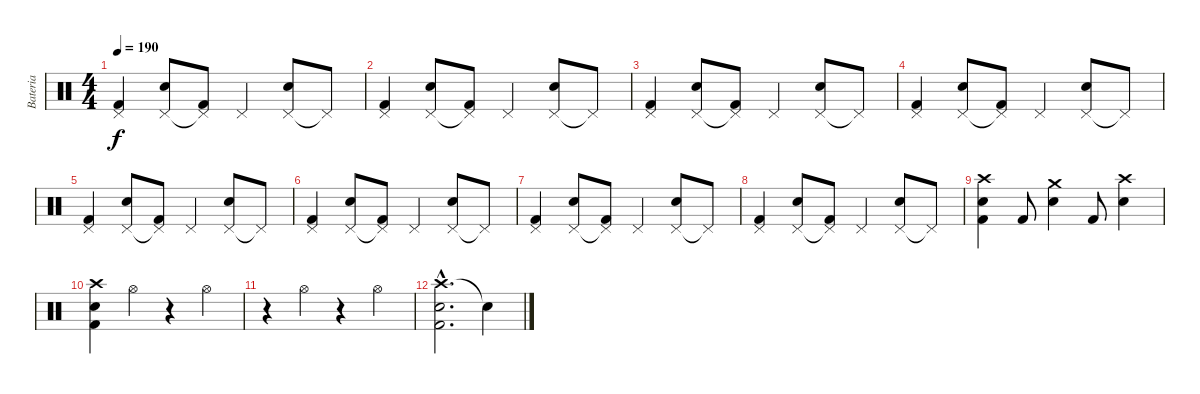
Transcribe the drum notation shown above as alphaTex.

\track ("Bateria" "Bateria") {instrument percussion}
\staff {score}
\articulation defaults
\ts (4 4)
\tempo 190
\clef neutral
\ks c
("Pedal Hi-Hat (hit)" "Kick (hit) 2").4{dy f} ("Pedal Hi-Hat (hit)" "Snare (hit) 2").8 ("Pedal Hi-Hat (hit)"{t} "Kick (hit) 2").8 "Pedal Hi-Hat (hit)".4 ("Pedal Hi-Hat (hit)" "Snare (hit) 2").8 "Pedal Hi-Hat (hit)"{t}.8 |
("Pedal Hi-Hat (hit)" "Kick (hit) 2").4 ("Pedal Hi-Hat (hit)" "Snare (hit) 2").8 ("Pedal Hi-Hat (hit)"{t} "Kick (hit) 2").8 "Pedal Hi-Hat (hit)".4 ("Pedal Hi-Hat (hit)" "Snare (hit) 2").8 "Pedal Hi-Hat (hit)"{t}.8 |
("Pedal Hi-Hat (hit)" "Kick (hit) 2").4 ("Pedal Hi-Hat (hit)" "Snare (hit) 2").8 ("Pedal Hi-Hat (hit)"{t} "Kick (hit) 2").8 "Pedal Hi-Hat (hit)".4 ("Pedal Hi-Hat (hit)" "Snare (hit) 2").8 "Pedal Hi-Hat (hit)"{t}.8 |
("Pedal Hi-Hat (hit)" "Kick (hit) 2").4 ("Pedal Hi-Hat (hit)" "Snare (hit) 2").8 ("Pedal Hi-Hat (hit)"{t} "Kick (hit) 2").8 "Pedal Hi-Hat (hit)".4 ("Pedal Hi-Hat (hit)" "Snare (hit) 2").8 "Pedal Hi-Hat (hit)"{t}.8 |
("Pedal Hi-Hat (hit)" "Kick (hit) 2").4 ("Pedal Hi-Hat (hit)" "Snare (hit) 2").8 ("Pedal Hi-Hat (hit)"{t} "Kick (hit) 2").8 "Pedal Hi-Hat (hit)".4 ("Pedal Hi-Hat (hit)" "Snare (hit) 2").8 "Pedal Hi-Hat (hit)"{t}.8 |
("Pedal Hi-Hat (hit)" "Kick (hit) 2").4 ("Pedal Hi-Hat (hit)" "Snare (hit) 2").8 ("Pedal Hi-Hat (hit)"{t} "Kick (hit) 2").8 "Pedal Hi-Hat (hit)".4 ("Pedal Hi-Hat (hit)" "Snare (hit) 2").8 "Pedal Hi-Hat (hit)"{t}.8 |
("Pedal Hi-Hat (hit)" "Kick (hit) 2").4 ("Pedal Hi-Hat (hit)" "Snare (hit) 2").8 ("Pedal Hi-Hat (hit)"{t} "Kick (hit) 2").8 "Pedal Hi-Hat (hit)".4 ("Pedal Hi-Hat (hit)" "Snare (hit) 2").8 "Pedal Hi-Hat (hit)"{t}.8 |
("Pedal Hi-Hat (hit)" "Kick (hit) 2").4 ("Pedal Hi-Hat (hit)" "Snare (hit) 2").8 ("Pedal Hi-Hat (hit)"{t} "Kick (hit) 2").8 "Pedal Hi-Hat (hit)".4 ("Pedal Hi-Hat (hit)" "Snare (hit) 2").8 "Pedal Hi-Hat (hit)"{t}.8 |
("Crash high (hit)" "Snare (hit) 2" "Kick (hit) 2").4 "Kick (hit) 2".8 ("Crash medium (hit)" "Snare (hit) 2").4 "Kick (hit) 2".8 ("Crash high (hit)" "Snare (hit) 2").4 |
("Crash high (hit)" "Snare (hit) 2" "Kick (hit) 2").4 "Hi-Hat (open)".4 r.4 "Hi-Hat (open)".4 |
r.4 "Hi-Hat (open)".4 r.4 "Hi-Hat (open)".4 |
("Crash high (hit)"{hac} "Snare (hit) 2"{hac} "Kick (hit) 2"{hac}).2{d} "Snare (hit)"{t}.4
